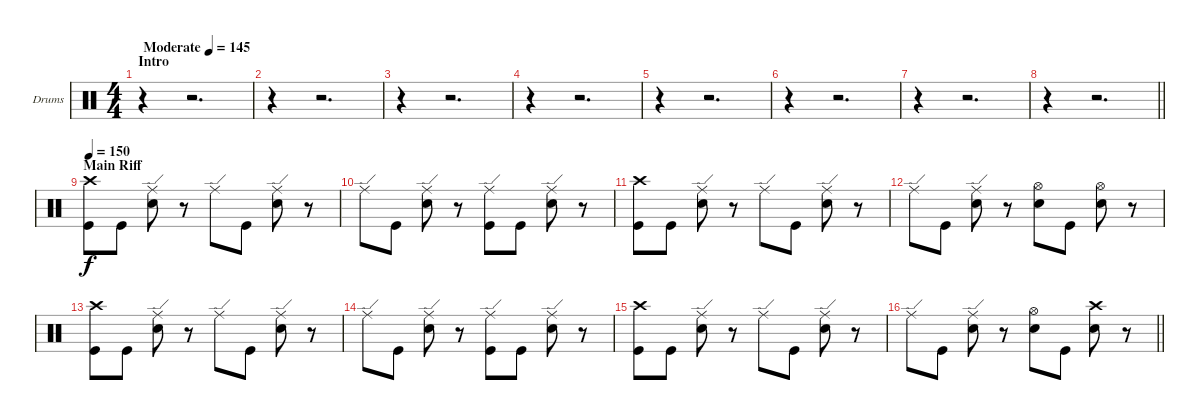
\bracketExtendMode nobrackets
\firstSystemTrackNameOrientation horizontal
\otherSystemsTrackNameOrientation horizontal
\track ("Drumkit" "Drums") {instrument percussion}
\staff {score}
\articulation defaults
\ts (4 4)
\beaming (8 2 2 2 2)
\section ("" "Intro")
\tempo (145 "Moderate")
\clef neutral
\ks c
r.4{dy f} r.2{d} |
r.4 r.2{d} |
r.4 r.2{d} |
r.4 r.2{d} |
r.4 r.2{d} |
r.4 r.2{d} |
r.4 r.2{d} |
\barLineRight lightlight
r.4 r.2{d} |
\section ("" "Main Riff")
\tempo 150
("Crash high (hit)" "Kick (hit)").8 "Kick (hit)".8 ("Ride (edge)" "Snare (hit) 2").8 r.8 "Ride (edge)".8 "Kick (hit)".8 ("Ride (edge)" "Snare (hit) 2").8 r.8 |
"Ride (edge)".8 "Kick (hit)".8 ("Ride (edge)" "Snare (hit) 2").8 r.8 ("Ride (edge)" "Kick (hit)").8 "Kick (hit)".8 ("Ride (edge)" "Snare (hit) 2").8 r.8 |
("Crash high (hit)" "Kick (hit)").8 "Kick (hit)".8 ("Ride (edge)" "Snare (hit) 2").8 r.8 "Ride (edge)".8 "Kick (hit)".8 ("Ride (edge)" "Snare (hit) 2").8 r.8 |
"Ride (edge)".8 "Kick (hit)".8 ("Ride (edge)" "Snare (hit) 2").8 r.8 ("Hi-Hat (open)" "Snare (hit) 2").8 "Kick (hit)".8 ("Hi-Hat (open)" "Snare (hit) 2").8 r.8 |
("Crash high (hit)" "Kick (hit)").8 "Kick (hit)".8 ("Ride (edge)" "Snare (hit) 2").8 r.8 "Ride (edge)".8 "Kick (hit)".8 ("Ride (edge)" "Snare (hit) 2").8 r.8 |
"Ride (edge)".8 "Kick (hit)".8 ("Ride (edge)" "Snare (hit) 2").8 r.8 ("Ride (edge)" "Kick (hit)").8 "Kick (hit)".8 ("Ride (edge)" "Snare (hit) 2").8 r.8 |
("Crash high (hit)" "Kick (hit)").8 "Kick (hit)".8 ("Ride (edge)" "Snare (hit) 2").8 r.8 "Ride (edge)".8 "Kick (hit)".8 ("Ride (edge)" "Snare (hit) 2").8 r.8 |
\barLineRight lightlight "Ride (edge)".8 "Kick (hit)".8
("Ride (edge)" "Snare (hit) 2").8 r.8 ("Hi-Hat (open)" "Snare (hit) 2").8 "Kick (hit)".8 ("Crash high (hit)" "Snare (hit) 2").8 r.8
